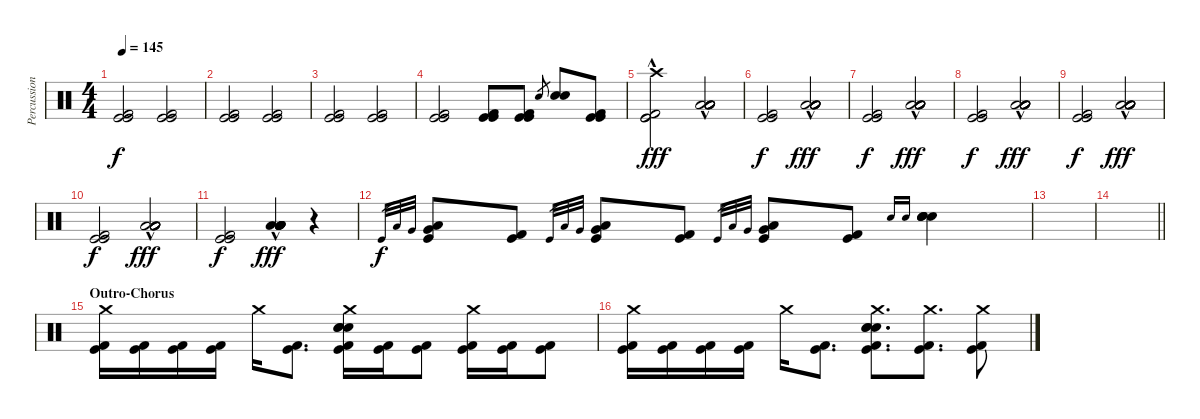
\track ("Percussion" "Percussion") {instrument percussion}
\staff {score}
\articulation defaults
\ts (4 4)
\tempo 145
\clef neutral
\ks c
("Kick (hit)" "Kick (hit)" "Kick (hit) 2").2{dy f} ("Kick (hit)" "Kick (hit)" "Kick (hit) 2").2 |
("Kick (hit)" "Kick (hit)" "Kick (hit) 2").2 ("Kick (hit)" "Kick (hit)" "Kick (hit) 2").2 |
("Kick (hit)" "Kick (hit)" "Kick (hit) 2").2 ("Kick (hit)" "Kick (hit)" "Kick (hit) 2").2 |
("Kick (hit)" "Kick (hit)" "Kick (hit) 2").2 ("Kick (hit)" "Kick (hit)" "Kick (hit) 2").8 ("Kick (hit)" "Kick (hit)" "Kick (hit) 2").8 "Electric Snare (hit)".8{gr} ("Snare (hit) 2" "Electric Snare (hit)").8 ("Kick (hit)" "Kick (hit)" "Kick (hit) 2").8 |
("Crash high (hit)"{hac} "Kick (hit)" "Kick (hit)"{hac} "Kick (hit) 2"{hac}).2{dy fff} ("Low Tom (hit)"{hac} "Low Tom (hit)"{hac} "Low Floor Tom (hit)"{hac} "Low Floor Tom (hit)"{hac} "Low Floor Tom (hit)"{hac} "Low Floor Tom (hit)"{hac}).2 |
("Kick (hit)" "Kick (hit)" "Kick (hit) 2").2{dy f} ("Low Tom (hit)"{hac} "Low Tom (hit)"{hac} "Low Floor Tom (hit)"{hac} "Low Floor Tom (hit)"{hac} "Low Floor Tom (hit)"{hac} "Low Floor Tom (hit)"{hac}).2{dy fff} |
("Kick (hit)" "Kick (hit)" "Kick (hit) 2").2{dy f} ("Low Tom (hit)"{hac} "Low Tom (hit)"{hac} "Low Floor Tom (hit)"{hac} "Low Floor Tom (hit)"{hac} "Low Floor Tom (hit)"{hac} "Low Floor Tom (hit)"{hac}).2{dy fff} |
("Kick (hit)" "Kick (hit)" "Kick (hit) 2").2{dy f} ("Low Tom (hit)"{hac} "Low Tom (hit)"{hac} "Low Floor Tom (hit)"{hac} "Low Floor Tom (hit)"{hac} "Low Floor Tom (hit)"{hac} "Low Floor Tom (hit)"{hac}).2{dy fff} |
("Kick (hit)" "Kick (hit)" "Kick (hit) 2").2{dy f} ("Low Tom (hit)"{hac} "Low Tom (hit)"{hac} "Low Floor Tom (hit)"{hac} "Low Floor Tom (hit)"{hac} "Low Floor Tom (hit)"{hac} "Low Floor Tom (hit)"{hac}).2{dy fff} |
("Kick (hit)" "Kick (hit)" "Kick (hit) 2").2{dy f} ("Low Tom (hit)"{hac} "Low Tom (hit)"{hac} "Low Floor Tom (hit)"{hac} "Low Floor Tom (hit)"{hac} "Low Floor Tom (hit)"{hac} "Low Floor Tom (hit)"{hac}).2{dy fff} |
("Kick (hit)" "Kick (hit)" "Kick (hit) 2").2{dy f} ("Low Tom (hit)"{hac} "Low Tom (hit)"{hac} "Low Floor Tom (hit)"{hac} "Low Floor Tom (hit)"{hac} "Low Floor Tom (hit)"{hac} "Low Floor Tom (hit)"{hac}).4{dy fff volume 7} r.4{volume 16} |
"Kick (hit)".32{gr dy f} "Low Floor Tom (hit)".32{gr} "Very Low Tom (hit)".32{gr} ("Kick (hit)" "Low Floor Tom (hit)" "Very Low Tom (hit)").8 ("Kick (hit)" "Kick (hit) 2").8 "Kick (hit)".32{gr} "Low Floor Tom (hit)".32{gr} "Very Low Tom (hit)".32{gr} ("Kick (hit)" "Low Floor Tom (hit)" "Very Low Tom (hit)").8 ("Kick (hit)" "Kick (hit) 2").8 "Kick (hit)".32{gr} "Low Floor Tom (hit)".32{gr} "Very Low Tom (hit)".32{gr} ("Kick (hit)" "Low Floor Tom (hit)" "Very Low Tom (hit)").8 ("Kick (hit)" "Kick (hit) 2").8 "Snare (hit) 2".16{gr onbeat} "Electric Snare (hit)".16{gr onbeat} ("Snare (hit) 2" "Electric Snare (hit)" "Electric Snare (hit)" "Snare (hit) 2").4 |
|
\barLineRight lightlight
|
\section ("" "Outro-Chorus")
("Crash medium (hit)" "Kick (hit)" "Kick (hit) 2").16 ("Kick (hit)" "Kick (hit) 2").16 ("Kick (hit)" "Kick (hit) 2").16 ("Kick (hit)" "Kick (hit) 2").16 "Crash medium (hit)".16 ("Kick (hit)" "Kick (hit) 2").8{d} ("Crash medium (hit)" "Electric Snare (hit)" "Snare (hit) 2" "Snare (hit) 2" "Kick (hit)" "Kick (hit) 2").16 ("Kick (hit)" "Kick (hit) 2").16 ("Kick (hit)" "Kick (hit) 2").8 ("Crash medium (hit)" "Kick (hit)" "Kick (hit) 2").16 ("Kick (hit)" "Kick (hit) 2").16 ("Kick (hit)" "Kick (hit) 2").8 |
("Crash medium (hit)" "Kick (hit)" "Kick (hit) 2").16 ("Kick (hit)" "Kick (hit) 2").16 ("Kick (hit)" "Kick (hit) 2").16 ("Kick (hit)" "Kick (hit) 2").16 "Crash medium (hit)".16 ("Kick (hit)" "Kick (hit) 2").8{d} ("Crash medium (hit)" "Electric Snare (hit)" "Snare (hit) 2" "Snare (hit) 2" "Kick (hit)" "Kick (hit) 2").8{d} ("Crash medium (hit)" "Kick (hit)" "Kick (hit) 2").8{d} ("Crash medium (hit)" "Kick (hit)" "Kick (hit) 2").8
